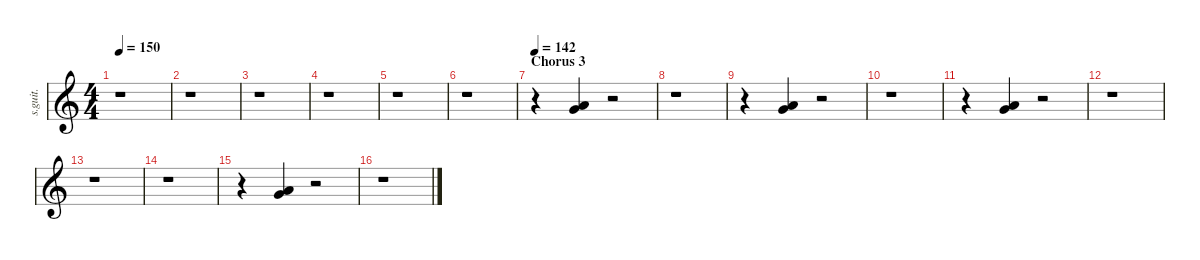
\defaultSystemsLayout 4
\hideDynamics
\bracketExtendMode nobrackets
\track ("Shawn Crahan" "s.guit.") {instrument percussion}
\staff {score}
\articulation defaults
\ts (4 4)
\tempo 150
\clef g2
\ks c
r.1{dy f} |
r.1 |
r.1 |
r.1 |
r.1 |
r.1 |
\section ("" "Chorus 3")
\tempo 142
r.4 ("Very Low Tom (hit)" "Low Floor Tom (hit)").4 r.2 |
r.1 |
r.4 ("Very Low Tom (hit)" "Low Floor Tom (hit)").4 r.2 |
r.1 |
r.4 ("Very Low Tom (hit)" "Low Floor Tom (hit)").4 r.2 |
r.1 |
r.1 |
r.1 |
r.4 ("Very Low Tom (hit)" "Low Floor Tom (hit)").4 r.2 |
r.1
